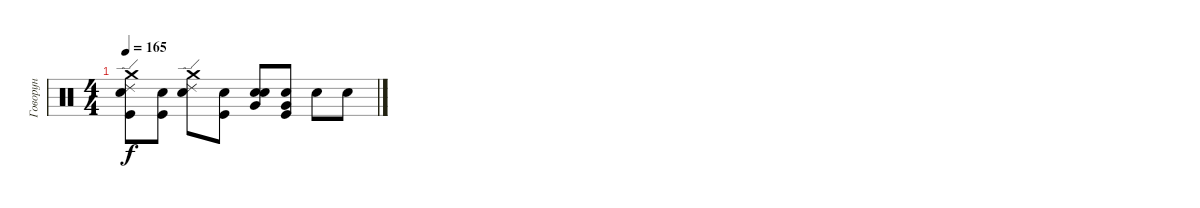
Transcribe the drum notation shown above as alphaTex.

\track ("Говорун" "Говорун") {instrument percussion}
\staff {score}
\articulation defaults
\ts (4 4)
\tempo 165
\clef neutral
\ks c
("Crash medium (hit)" "Ride (edge) 2" "Kick (hit)" "Snare (hit)"{x}).8{dy f} ("Kick (hit)" "Snare (hit)"{x}).8 ("Crash medium (hit)" "Ride (edge) 2" "Snare (hit)"{x}).8 ("Kick (hit)" "Snare (hit)"{x}).8 ("Very Low Tom (hit)" "Snare (hit) 2" "Snare (hit)"{x}).8 ("Very Low Tom (hit)" "Kick (hit)" "Snare (hit)"{x}).8 "Snare (hit)"{x}.8 "Snare (hit)"{x}.8
